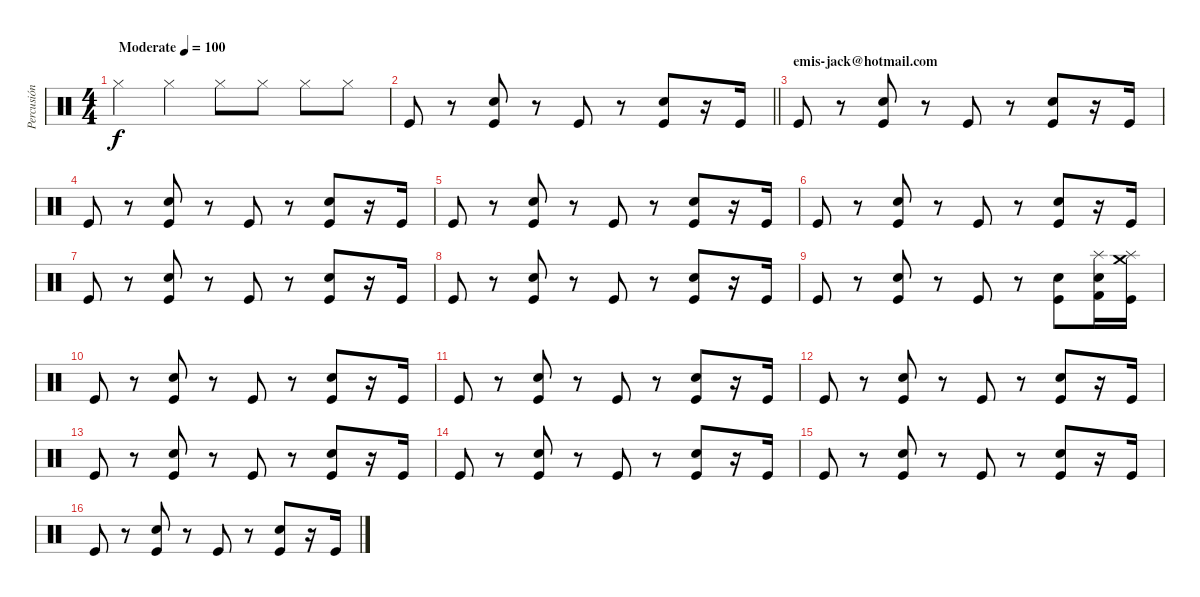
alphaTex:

\track ("Percusión" "Percusión") {instrument percussion}
\staff {score}
\articulation defaults
\ts (4 4)
\tempo (100 "Moderate")
\clef neutral
\ks c "Hi-Hat (closed)".4{dy f} "Hi-Hat (closed)".4 "Hi-Hat (closed)".8 "Hi-Hat (closed)".8 "Hi-Hat (closed)".8 "Hi-Hat (closed)".8
|
\barLineRight lightlight "Kick (hit)".8
r.8 ("Kick (hit)" "Electric Snare (hit)").8 r.8 "Kick (hit)".8 r.8 ("Kick (hit)" "Electric Snare (hit)").8 r.16 "Kick (hit)".16 |
\section ("" "emis-jack@hotmail.com")
"Kick (hit)".8 r.8 ("Kick (hit)" "Electric Snare (hit)").8 r.8 "Kick (hit)".8 r.8 ("Kick (hit)" "Electric Snare (hit)").8 r.16 "Kick (hit)".16 |
"Kick (hit)".8 r.8 ("Kick (hit)" "Electric Snare (hit)").8 r.8 "Kick (hit)".8 r.8 ("Kick (hit)" "Electric Snare (hit)").8 r.16 "Kick (hit)".16 |
"Kick (hit)".8 r.8 ("Kick (hit)" "Electric Snare (hit)").8 r.8 "Kick (hit)".8 r.8 ("Kick (hit)" "Electric Snare (hit)").8 r.16 "Kick (hit)".16 |
"Kick (hit)".8 r.8 ("Kick (hit)" "Electric Snare (hit)").8 r.8 "Kick (hit)".8 r.8 ("Kick (hit)" "Electric Snare (hit)").8 r.16 "Kick (hit)".16 |
"Kick (hit)".8 r.8 ("Kick (hit)" "Electric Snare (hit)").8 r.8 "Kick (hit)".8 r.8 ("Kick (hit)" "Electric Snare (hit)").8 r.16 "Kick (hit)".16 |
"Kick (hit)".8 r.8 ("Kick (hit)" "Electric Snare (hit)").8 r.8 "Kick (hit)".8 r.8 ("Kick (hit)" "Electric Snare (hit)").8 r.16 "Kick (hit)".16 |
"Kick (hit)".8 r.8 ("Kick (hit)" "Electric Snare (hit)").8 r.8 "Kick (hit)".8 r.8 ("Kick (hit)" "Electric Snare (hit)").8 ("Kick (hit) 2" "Electric Snare (hit)" "Splash (hit)").16 ("Kick (hit)" "Splash (hit)" "Crash medium (hit)").16 |
"Kick (hit)".8 r.8 ("Kick (hit)" "Electric Snare (hit)").8 r.8 "Kick (hit)".8 r.8 ("Kick (hit)" "Electric Snare (hit)").8 r.16 "Kick (hit)".16 |
"Kick (hit)".8 r.8 ("Kick (hit)" "Electric Snare (hit)").8 r.8 "Kick (hit)".8 r.8 ("Kick (hit)" "Electric Snare (hit)").8 r.16 "Kick (hit)".16 |
"Kick (hit)".8 r.8 ("Kick (hit)" "Electric Snare (hit)").8 r.8 "Kick (hit)".8 r.8 ("Kick (hit)" "Electric Snare (hit)").8 r.16 "Kick (hit)".16 |
"Kick (hit)".8 r.8 ("Kick (hit)" "Electric Snare (hit)").8 r.8 "Kick (hit)".8 r.8 ("Kick (hit)" "Electric Snare (hit)").8 r.16 "Kick (hit)".16 |
"Kick (hit)".8 r.8 ("Kick (hit)" "Electric Snare (hit)").8 r.8 "Kick (hit)".8 r.8 ("Kick (hit)" "Electric Snare (hit)").8 r.16 "Kick (hit)".16 |
"Kick (hit)".8 r.8 ("Kick (hit)" "Electric Snare (hit)").8 r.8 "Kick (hit)".8 r.8 ("Kick (hit)" "Electric Snare (hit)").8 r.16 "Kick (hit)".16 |
"Kick (hit)".8 r.8 ("Kick (hit)" "Electric Snare (hit)").8 r.8 "Kick (hit)".8 r.8 ("Kick (hit)" "Electric Snare (hit)").8 r.16 "Kick (hit)".16
